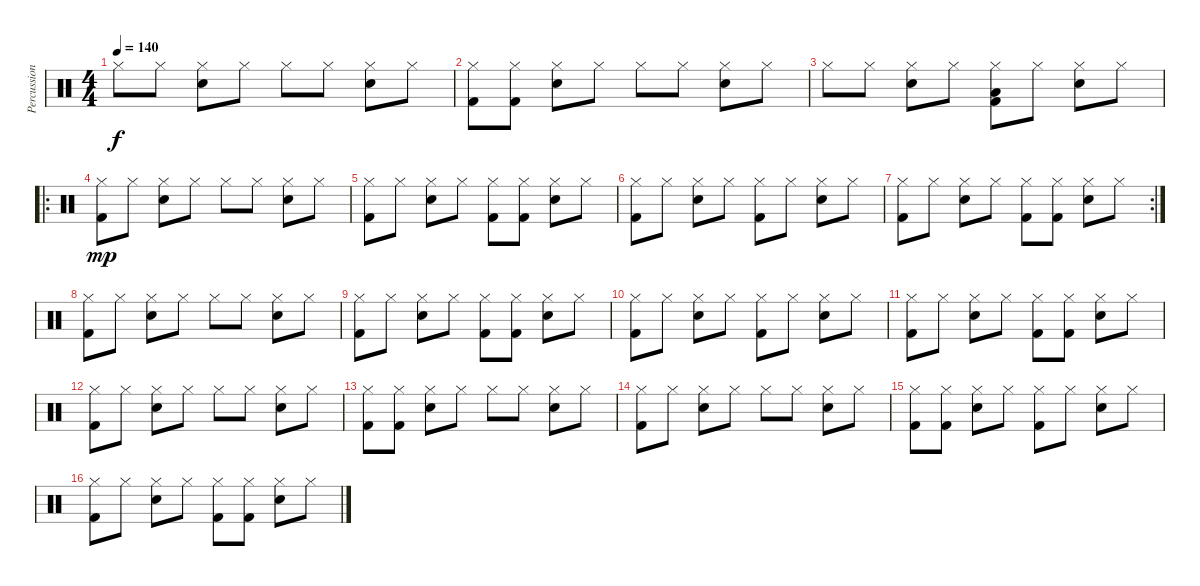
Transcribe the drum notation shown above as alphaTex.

\track ("Percussions" "Percussion") {instrument percussion}
\staff {score}
\articulation defaults
\ts (4 4)
\tempo 140
\clef neutral
\ks c "Hi-Hat (closed)".8{dy f} "Hi-Hat (closed)".8
("Hi-Hat (closed)" "Electric Snare (hit)").8 "Hi-Hat (closed)".8 "Hi-Hat (closed)".8 "Hi-Hat (closed)".8 ("Hi-Hat (closed)" "Electric Snare (hit)").8 "Hi-Hat (closed)".8 |
("Hi-Hat (closed)" "Kick (hit) 2").8 ("Hi-Hat (closed)" "Kick (hit) 2").8 ("Hi-Hat (closed)" "Electric Snare (hit)").8 "Hi-Hat (closed)".8 "Hi-Hat (closed)".8 "Hi-Hat (closed)".8 ("Hi-Hat (closed)" "Electric Snare (hit)").8 "Hi-Hat (closed)".8 |
"Hi-Hat (closed)".8 "Hi-Hat (closed)".8 ("Hi-Hat (closed)" "Electric Snare (hit)").8 "Hi-Hat (closed)".8 ("Hi-Hat (closed)" "Low Floor Tom (hit)" "Kick (hit) 2").8 "Hi-Hat (closed)".8 ("Hi-Hat (closed)" "Electric Snare (hit)").8 "Hi-Hat (closed)".8 |
\ro
("Hi-Hat (closed)" "Kick (hit) 2").8{dy mp} "Hi-Hat (closed)".8 ("Hi-Hat (closed)" "Electric Snare (hit)").8 "Hi-Hat (closed)".8 "Hi-Hat (closed)".8 "Hi-Hat (closed)".8 ("Hi-Hat (closed)" "Electric Snare (hit)").8 "Hi-Hat (closed)".8 |
("Hi-Hat (closed)" "Kick (hit) 2").8 "Hi-Hat (closed)".8 ("Hi-Hat (closed)" "Electric Snare (hit)").8 "Hi-Hat (closed)".8 ("Hi-Hat (closed)" "Kick (hit) 2").8 ("Hi-Hat (closed)" "Kick (hit) 2").8 ("Hi-Hat (closed)" "Electric Snare (hit)").8 "Hi-Hat (closed)".8 |
("Hi-Hat (closed)" "Kick (hit) 2").8 "Hi-Hat (closed)".8 ("Hi-Hat (closed)" "Electric Snare (hit)").8 "Hi-Hat (closed)".8 ("Hi-Hat (closed)" "Kick (hit) 2").8 "Hi-Hat (closed)".8 ("Hi-Hat (closed)" "Electric Snare (hit)").8 "Hi-Hat (closed)".8 |
\rc 2
("Hi-Hat (closed)" "Kick (hit) 2").8 "Hi-Hat (closed)".8 ("Hi-Hat (closed)" "Electric Snare (hit)").8 "Hi-Hat (closed)".8 ("Hi-Hat (closed)" "Kick (hit) 2").8 ("Hi-Hat (closed)" "Kick (hit) 2").8 ("Hi-Hat (closed)" "Electric Snare (hit)").8 "Hi-Hat (closed)".8 |
("Hi-Hat (closed)" "Kick (hit) 2").8 "Hi-Hat (closed)".8 ("Hi-Hat (closed)" "Electric Snare (hit)").8 "Hi-Hat (closed)".8 "Hi-Hat (closed)".8 "Hi-Hat (closed)".8 ("Hi-Hat (closed)" "Electric Snare (hit)").8 "Hi-Hat (closed)".8 |
("Hi-Hat (closed)" "Kick (hit) 2").8 "Hi-Hat (closed)".8 ("Hi-Hat (closed)" "Electric Snare (hit)").8 "Hi-Hat (closed)".8 ("Hi-Hat (closed)" "Kick (hit) 2").8 ("Hi-Hat (closed)" "Kick (hit) 2").8 ("Hi-Hat (closed)" "Electric Snare (hit)").8 "Hi-Hat (closed)".8 |
("Hi-Hat (closed)" "Kick (hit) 2").8 "Hi-Hat (closed)".8 ("Hi-Hat (closed)" "Electric Snare (hit)").8 "Hi-Hat (closed)".8 ("Hi-Hat (closed)" "Kick (hit) 2").8 "Hi-Hat (closed)".8 ("Hi-Hat (closed)" "Electric Snare (hit)").8 "Hi-Hat (closed)".8 |
("Hi-Hat (closed)" "Kick (hit) 2").8 "Hi-Hat (closed)".8 ("Hi-Hat (closed)" "Electric Snare (hit)").8 "Hi-Hat (closed)".8 ("Hi-Hat (closed)" "Kick (hit) 2").8 ("Hi-Hat (closed)" "Kick (hit) 2").8 ("Hi-Hat (closed)" "Electric Snare (hit)").8 "Hi-Hat (closed)".8 |
("Hi-Hat (closed)" "Kick (hit) 2").8 "Hi-Hat (closed)".8 ("Hi-Hat (closed)" "Electric Snare (hit)").8 "Hi-Hat (closed)".8 "Hi-Hat (closed)".8 "Hi-Hat (closed)".8 ("Hi-Hat (closed)" "Electric Snare (hit)").8 "Hi-Hat (closed)".8 |
("Hi-Hat (closed)" "Kick (hit) 2").8 ("Hi-Hat (closed)" "Kick (hit) 2").8 ("Hi-Hat (closed)" "Electric Snare (hit)").8 "Hi-Hat (closed)".8 "Hi-Hat (closed)".8 "Hi-Hat (closed)".8 ("Hi-Hat (closed)" "Electric Snare (hit)").8 "Hi-Hat (closed)".8 |
("Hi-Hat (closed)" "Kick (hit) 2").8 "Hi-Hat (closed)".8 ("Hi-Hat (closed)" "Electric Snare (hit)").8 "Hi-Hat (closed)".8 "Hi-Hat (closed)".8 "Hi-Hat (closed)".8 ("Hi-Hat (closed)" "Electric Snare (hit)").8 "Hi-Hat (closed)".8 |
("Hi-Hat (closed)" "Kick (hit) 2").8 ("Hi-Hat (closed)" "Kick (hit) 2").8 ("Hi-Hat (closed)" "Electric Snare (hit)").8 "Hi-Hat (closed)".8 ("Hi-Hat (closed)" "Kick (hit) 2").8 "Hi-Hat (closed)".8 ("Hi-Hat (closed)" "Electric Snare (hit)").8 "Hi-Hat (closed)".8 |
("Hi-Hat (closed)" "Kick (hit) 2").8 "Hi-Hat (closed)".8 ("Hi-Hat (closed)" "Electric Snare (hit)").8 "Hi-Hat (closed)".8 ("Hi-Hat (closed)" "Kick (hit) 2").8 ("Hi-Hat (closed)" "Kick (hit) 2").8 ("Hi-Hat (closed)" "Electric Snare (hit)").8 "Hi-Hat (closed)".8
